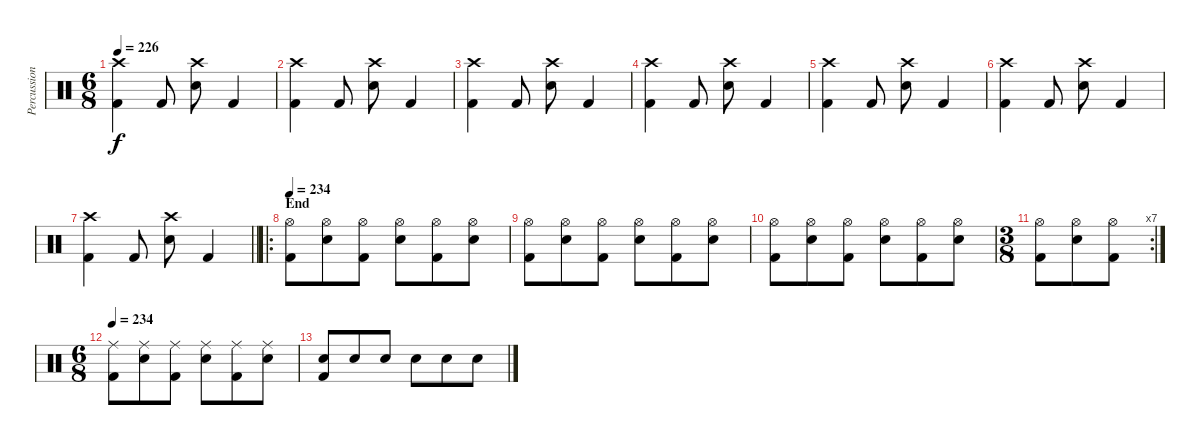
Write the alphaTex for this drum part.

\track ("Percussion" "Percussion") {instrument percussion}
\staff {score}
\articulation defaults
\ts (6 8)
\tempo 226
\clef neutral
\ks c
("Crash high (hit)" "Kick (hit) 2").4{dy f} "Kick (hit) 2".8 ("Crash high (hit)" "Electric Snare (hit)").8 "Kick (hit) 2".4 |
("Crash high (hit)" "Kick (hit) 2").4 "Kick (hit) 2".8 ("Crash high (hit)" "Electric Snare (hit)").8 "Kick (hit) 2".4 |
("Crash high (hit)" "Kick (hit) 2").4 "Kick (hit) 2".8 ("Crash high (hit)" "Electric Snare (hit)").8 "Kick (hit) 2".4 |
("Crash high (hit)" "Kick (hit) 2").4 "Kick (hit) 2".8 ("Crash high (hit)" "Electric Snare (hit)").8 "Kick (hit) 2".4 |
("Crash high (hit)" "Kick (hit) 2").4 "Kick (hit) 2".8 ("Crash high (hit)" "Electric Snare (hit)").8 "Kick (hit) 2".4 |
("Crash high (hit)" "Kick (hit) 2").4 "Kick (hit) 2".8 ("Crash high (hit)" "Electric Snare (hit)").8 "Kick (hit) 2".4 |
\barLineRight lightlight
("Crash high (hit)" "Kick (hit) 2").4 "Kick (hit) 2".8 ("Crash high (hit)" "Electric Snare (hit)").8 "Kick (hit) 2".4 |
\ro
\section ("" "End")
\tempo 234
("Hi-Hat (open)" "Kick (hit) 2").8 ("Hi-Hat (open)" "Electric Snare (hit)").8 ("Hi-Hat (open)" "Kick (hit) 2").8 ("Hi-Hat (open)" "Electric Snare (hit)").8 ("Hi-Hat (open)" "Kick (hit) 2").8 ("Hi-Hat (open)" "Electric Snare (hit)").8 |
("Hi-Hat (open)" "Kick (hit) 2").8 ("Hi-Hat (open)" "Electric Snare (hit)").8 ("Hi-Hat (open)" "Kick (hit) 2").8 ("Hi-Hat (open)" "Electric Snare (hit)").8 ("Hi-Hat (open)" "Kick (hit) 2").8 ("Hi-Hat (open)" "Electric Snare (hit)").8 |
("Hi-Hat (open)" "Kick (hit) 2").8 ("Hi-Hat (open)" "Electric Snare (hit)").8 ("Hi-Hat (open)" "Kick (hit) 2").8 ("Hi-Hat (open)" "Electric Snare (hit)").8 ("Hi-Hat (open)" "Kick (hit) 2").8 ("Hi-Hat (open)" "Electric Snare (hit)").8 |
\rc 7
\ts (3 8)
("Hi-Hat (open)" "Kick (hit) 2").8 ("Hi-Hat (open)" "Electric Snare (hit)").8 ("Hi-Hat (open)" "Kick (hit) 2").8 |
\ts (6 8)
\tempo 234
("Ride (middle)" "Kick (hit) 2").8 ("Ride (middle)" "Electric Snare (hit)").8 ("Ride (middle)" "Kick (hit) 2").8 ("Ride (middle)" "Electric Snare (hit)").8 ("Ride (middle)" "Kick (hit) 2").8 ("Ride (middle)" "Electric Snare (hit)").8 |
("Electric Snare (hit)" "Kick (hit) 2").8 "Electric Snare (hit)".8 "Electric Snare (hit)".8 "Electric Snare (hit)".8 "Electric Snare (hit)".8 "Electric Snare (hit)".8
